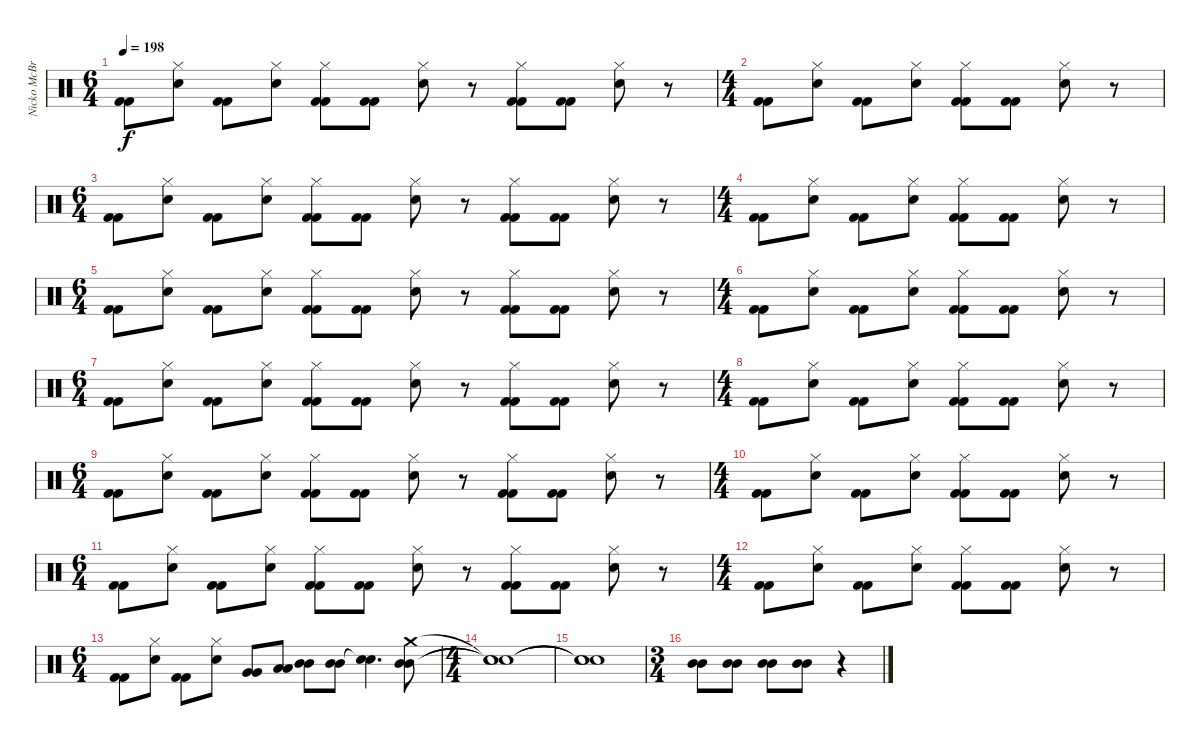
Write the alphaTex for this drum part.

\track ("Nicko McBrain" "Nicko McBr") {instrument percussion}
\staff {score}
\articulation defaults
\ts (6 4)
\tempo 198
\clef neutral
\ks c
("Kick (hit) 2" "Kick (hit) 2").8{dy f} ("Hi-Hat (closed)" "Electric Snare (hit)").8 ("Kick (hit) 2" "Kick (hit) 2").8 ("Hi-Hat (closed)" "Electric Snare (hit)").8 ("Hi-Hat (closed)" "Kick (hit) 2" "Kick (hit) 2").8 ("Kick (hit) 2" "Kick (hit) 2").8 ("Hi-Hat (closed)" "Electric Snare (hit)").8 r.8 ("Hi-Hat (closed)" "Kick (hit) 2" "Kick (hit) 2").8 ("Kick (hit) 2" "Kick (hit) 2").8 ("Hi-Hat (closed)" "Electric Snare (hit)").8 r.8 |
\ts (4 4)
("Kick (hit) 2" "Kick (hit) 2").8 ("Hi-Hat (closed)" "Electric Snare (hit)").8 ("Kick (hit) 2" "Kick (hit) 2").8 ("Hi-Hat (closed)" "Electric Snare (hit)").8 ("Hi-Hat (closed)" "Kick (hit) 2" "Kick (hit) 2").8 ("Kick (hit) 2" "Kick (hit) 2").8 ("Hi-Hat (closed)" "Electric Snare (hit)").8 r.8 |
\ts (6 4)
("Kick (hit) 2" "Kick (hit) 2").8 ("Hi-Hat (closed)" "Electric Snare (hit)").8 ("Kick (hit) 2" "Kick (hit) 2").8 ("Hi-Hat (closed)" "Electric Snare (hit)").8 ("Hi-Hat (closed)" "Kick (hit) 2" "Kick (hit) 2").8 ("Kick (hit) 2" "Kick (hit) 2").8 ("Hi-Hat (closed)" "Electric Snare (hit)").8 r.8 ("Hi-Hat (closed)" "Kick (hit) 2" "Kick (hit) 2").8 ("Kick (hit) 2" "Kick (hit) 2").8 ("Hi-Hat (closed)" "Electric Snare (hit)").8 r.8 |
\ts (4 4)
("Kick (hit) 2" "Kick (hit) 2").8 ("Hi-Hat (closed)" "Electric Snare (hit)").8 ("Kick (hit) 2" "Kick (hit) 2").8 ("Hi-Hat (closed)" "Electric Snare (hit)").8 ("Hi-Hat (closed)" "Kick (hit) 2" "Kick (hit) 2").8 ("Kick (hit) 2" "Kick (hit) 2").8 ("Hi-Hat (closed)" "Electric Snare (hit)").8 r.8 |
\ts (6 4)
("Kick (hit) 2" "Kick (hit) 2").8 ("Hi-Hat (closed)" "Electric Snare (hit)").8 ("Kick (hit) 2" "Kick (hit) 2").8 ("Hi-Hat (closed)" "Electric Snare (hit)").8 ("Hi-Hat (closed)" "Kick (hit) 2" "Kick (hit) 2").8 ("Kick (hit) 2" "Kick (hit) 2").8 ("Hi-Hat (closed)" "Electric Snare (hit)").8 r.8 ("Hi-Hat (closed)" "Kick (hit) 2" "Kick (hit) 2").8 ("Kick (hit) 2" "Kick (hit) 2").8 ("Hi-Hat (closed)" "Electric Snare (hit)").8 r.8 |
\ts (4 4)
("Kick (hit) 2" "Kick (hit) 2").8 ("Hi-Hat (closed)" "Electric Snare (hit)").8 ("Kick (hit) 2" "Kick (hit) 2").8 ("Hi-Hat (closed)" "Electric Snare (hit)").8 ("Hi-Hat (closed)" "Kick (hit) 2" "Kick (hit) 2").8 ("Kick (hit) 2" "Kick (hit) 2").8 ("Hi-Hat (closed)" "Electric Snare (hit)").8 r.8 |
\ts (6 4)
("Kick (hit) 2" "Kick (hit) 2").8 ("Hi-Hat (closed)" "Electric Snare (hit)").8 ("Kick (hit) 2" "Kick (hit) 2").8 ("Hi-Hat (closed)" "Electric Snare (hit)").8 ("Hi-Hat (closed)" "Kick (hit) 2" "Kick (hit) 2").8 ("Kick (hit) 2" "Kick (hit) 2").8 ("Hi-Hat (closed)" "Electric Snare (hit)").8 r.8 ("Hi-Hat (closed)" "Kick (hit) 2" "Kick (hit) 2").8 ("Kick (hit) 2" "Kick (hit) 2").8 ("Hi-Hat (closed)" "Electric Snare (hit)").8 r.8 |
\ts (4 4)
("Kick (hit) 2" "Kick (hit) 2").8 ("Hi-Hat (closed)" "Electric Snare (hit)").8 ("Kick (hit) 2" "Kick (hit) 2").8 ("Hi-Hat (closed)" "Electric Snare (hit)").8 ("Hi-Hat (closed)" "Kick (hit) 2" "Kick (hit) 2").8 ("Kick (hit) 2" "Kick (hit) 2").8 ("Hi-Hat (closed)" "Electric Snare (hit)").8 r.8 |
\ts (6 4)
("Kick (hit) 2" "Kick (hit) 2").8 ("Hi-Hat (closed)" "Electric Snare (hit)").8 ("Kick (hit) 2" "Kick (hit) 2").8 ("Hi-Hat (closed)" "Electric Snare (hit)").8 ("Hi-Hat (closed)" "Kick (hit) 2" "Kick (hit) 2").8 ("Kick (hit) 2" "Kick (hit) 2").8 ("Hi-Hat (closed)" "Electric Snare (hit)").8 r.8 ("Hi-Hat (closed)" "Kick (hit) 2" "Kick (hit) 2").8 ("Kick (hit) 2" "Kick (hit) 2").8 ("Hi-Hat (closed)" "Electric Snare (hit)").8 r.8 |
\ts (4 4)
("Kick (hit) 2" "Kick (hit) 2").8 ("Hi-Hat (closed)" "Electric Snare (hit)").8 ("Kick (hit) 2" "Kick (hit) 2").8 ("Hi-Hat (closed)" "Electric Snare (hit)").8 ("Hi-Hat (closed)" "Kick (hit) 2" "Kick (hit) 2").8 ("Kick (hit) 2" "Kick (hit) 2").8 ("Hi-Hat (closed)" "Electric Snare (hit)").8 r.8 |
\ts (6 4)
("Kick (hit) 2" "Kick (hit) 2").8 ("Hi-Hat (closed)" "Electric Snare (hit)").8 ("Kick (hit) 2" "Kick (hit) 2").8 ("Hi-Hat (closed)" "Electric Snare (hit)").8 ("Hi-Hat (closed)" "Kick (hit) 2" "Kick (hit) 2").8 ("Kick (hit) 2" "Kick (hit) 2").8 ("Hi-Hat (closed)" "Electric Snare (hit)").8 r.8 ("Hi-Hat (closed)" "Kick (hit) 2" "Kick (hit) 2").8 ("Kick (hit) 2" "Kick (hit) 2").8 ("Hi-Hat (closed)" "Electric Snare (hit)").8 r.8 |
\ts (4 4)
("Kick (hit) 2" "Kick (hit) 2").8 ("Hi-Hat (closed)" "Electric Snare (hit)").8 ("Kick (hit) 2" "Kick (hit) 2").8 ("Hi-Hat (closed)" "Electric Snare (hit)").8 ("Hi-Hat (closed)" "Kick (hit) 2" "Kick (hit) 2").8 ("Kick (hit) 2" "Kick (hit) 2").8 ("Hi-Hat (closed)" "Electric Snare (hit)").8 r.8 |
\ts (6 4)
("Kick (hit) 2" "Kick (hit) 2").8 ("Hi-Hat (closed)" "Electric Snare (hit)").8 ("Kick (hit) 2" "Kick (hit) 2").8 ("Hi-Hat (closed)" "Electric Snare (hit)").8 ("Very Low Tom (hit)" "Very Low Tom (hit)").8 ("Low Tom (hit)" "Low Tom (hit)").8 ("Mid Tom (hit)" "Mid Tom (hit)").8 ("Mid Tom (hit)" "Mid Tom (hit)").8 ("Snare (hit)"{t} "Snare (hit)"{t}).4{d} ("Crash medium (hit)" "Mid Tom (hit)" "Mid Tom (hit)").8 |
\ts (4 4)
("Snare (hit)"{t} "Snare (hit)"{t} "Snare (hit)"{t}).1 |
("Snare (hit)"{t} "Snare (hit)"{t} "Snare (hit)"{t}).1 |
\ts (3 4)
("Mid Tom (hit)" "Mid Tom (hit)").8 ("Mid Tom (hit)" "Mid Tom (hit)").8 ("Mid Tom (hit)" "Mid Tom (hit)").8 ("Mid Tom (hit)" "Mid Tom (hit)").8 r.4
